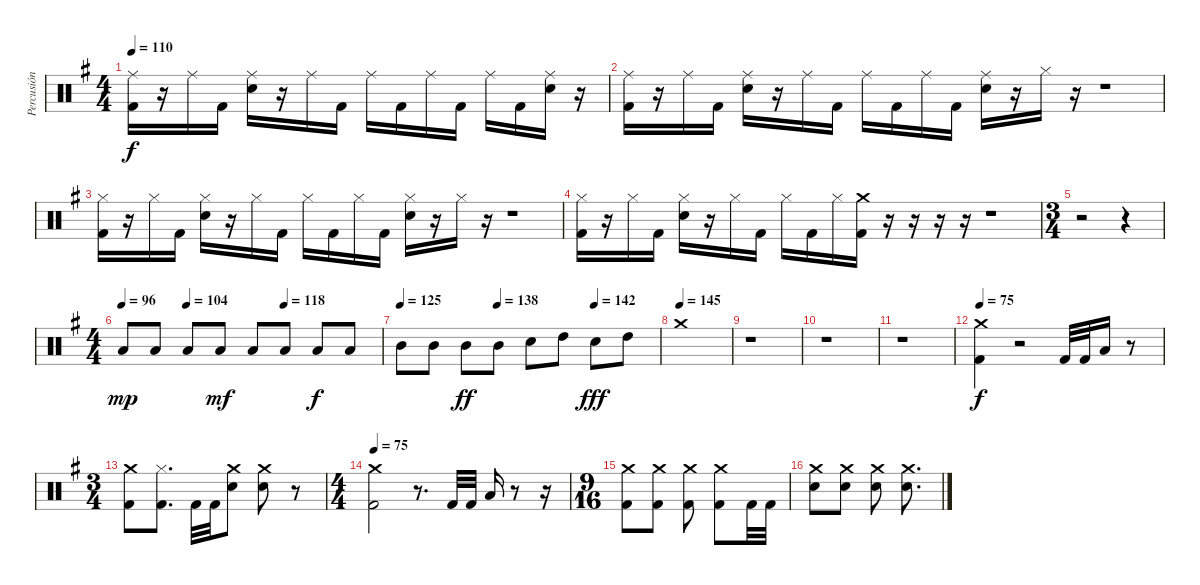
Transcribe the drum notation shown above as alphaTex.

\track ("Percusión" "Percusión") {instrument percussion}
\staff {score}
\articulation defaults
\ts (4 4)
\tempo 110
\clef neutral
\ks g
("Ride (middle)" "Kick (hit) 2").16{dy f} r.16 "Ride (middle)".16 "Kick (hit) 2".16 ("Ride (middle)" "Electric Snare (hit)").16 r.16 "Ride (middle)".16 "Kick (hit) 2".16 "Ride (middle)".16 "Kick (hit) 2".16 "Ride (middle)".16 "Kick (hit) 2".16 "Ride (middle)".16 "Kick (hit) 2".16 ("Ride (middle)" "Electric Snare (hit)").16 r.16 |
("Ride (middle)" "Kick (hit) 2").16 r.16 "Ride (middle)".16 "Kick (hit) 2".16 ("Ride (middle)" "Electric Snare (hit)").16 r.16 "Ride (middle)".16 "Kick (hit) 2".16 "Ride (middle)".16 "Kick (hit) 2".16 "Ride (middle)".16 "Kick (hit) 2".16 ("Ride (middle)" "Electric Snare (hit)").16 r.16 "Hi-Hat (closed)".16 r.16 r.1 |
("Hi-Hat (closed)" "Kick (hit) 2").16 r.16 "Hi-Hat (closed)".16 "Kick (hit) 2".16 ("Hi-Hat (closed)" "Electric Snare (hit)").16 r.16 "Hi-Hat (closed)".16 "Kick (hit) 2".16 "Hi-Hat (closed)".16 "Kick (hit) 2".16 "Hi-Hat (closed)".16 "Kick (hit) 2".16 ("Hi-Hat (closed)" "Electric Snare (hit)").16 r.16 "Hi-Hat (closed)".16 r.16 r.1 |
("Hi-Hat (closed)" "Kick (hit) 2").16 r.16 "Hi-Hat (closed)".16 "Kick (hit) 2".16 ("Hi-Hat (closed)" "Electric Snare (hit)").16 r.16 "Hi-Hat (closed)".16 "Kick (hit) 2".16 "Hi-Hat (closed)".16 "Kick (hit) 2".16 "Hi-Hat (closed)".16 ("Crash medium (hit)" "Kick (hit) 2").16 r.16 r.16 r.16 r.16 r.1 |
\ts (3 4)
r.2 r.4 |
\ts (4 4)
\tempo 96
\tempo (104 0.25)
\tempo (118 0.625)
"Low Floor Tom (hit)".8{dy mp} "Low Floor Tom (hit)".8 "Low Floor Tom (hit)".8 "Low Floor Tom (hit)".8{dy mf} "Low Tom (hit)".8 "Low Tom (hit)".8 "Low Tom (hit)".8{dy f} "Low Tom (hit)".8 |
\tempo 125
\tempo (138 0.375)
\tempo (142 0.75)
"Mid Tom (hit)".8 "Mid Tom (hit)".8 "Mid Tom (hit)".8{dy ff} "Mid Tom (hit)".8 "Electric Snare (hit)".8 "High Tom (hit)".8 "Electric Snare (hit)".8{dy fff} "High Tom (hit)".8 |
\tempo (145)
"Crash medium (hit)".1 |
r.1 |
r.1 |
r.1 |
\tempo 75
("Crash medium (hit)" "Kick (hit) 2").4{dy f} r.2 "Kick (hit) 2".32 "Kick (hit) 2".32 "Low Floor Tom (hit)".16 r.8 |
\ts (3 4)
("Crash medium (hit)" "Kick (hit) 2").8 ("Hi-Hat (closed)" "Kick (hit) 2").8{d} "Kick (hit) 2".32 "Kick (hit) 2".32 ("Crash medium (hit)" "Electric Snare (hit)").8 ("Crash medium (hit)" "Electric Snare (hit)").8 r.8 |
\ts (4 4)
\tempo 75
("Crash medium (hit)" "Kick (hit) 2").2 r.8{d} "Kick (hit) 2".32 "Kick (hit) 2".32 "Low Floor Tom (hit)".16 r.8 r.16 |
\ts (9 16)
("Crash medium (hit)" "Kick (hit) 2").8 ("Crash medium (hit)" "Kick (hit) 2").8 ("Crash medium (hit)" "Kick (hit) 2").8 ("Crash medium (hit)" "Kick (hit) 2").8 "Kick (hit) 2".32 "Kick (hit) 2".32 |
("Crash medium (hit)" "Electric Snare (hit)").8 ("Crash medium (hit)" "Electric Snare (hit)").8 ("Crash medium (hit)" "Electric Snare (hit)").8 ("Crash medium (hit)" "Electric Snare (hit)").8{d}
